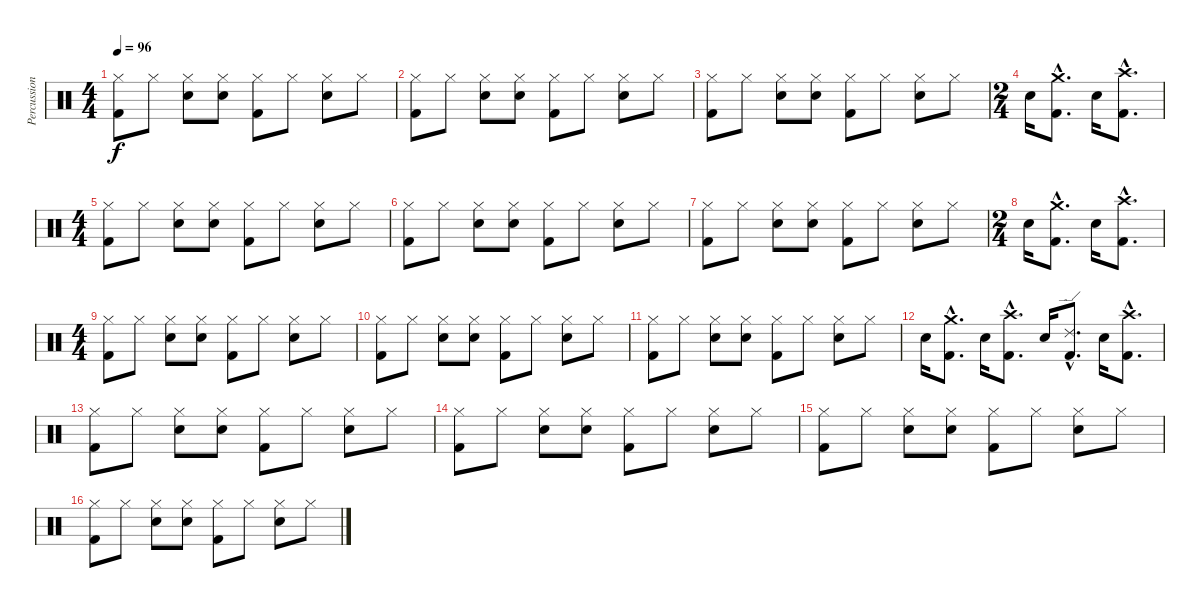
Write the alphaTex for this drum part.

\track ("Percussion" "Percussion") {instrument percussion}
\staff {score}
\articulation defaults
\ts (4 4)
\tempo 96
\clef neutral
\ks c
("Hi-Hat (closed)" "Kick (hit) 2").8{dy f} "Hi-Hat (closed)".8 ("Hi-Hat (closed)" "Snare (hit) 2").8 ("Hi-Hat (closed)" "Snare (hit) 2").8 ("Hi-Hat (closed)" "Kick (hit) 2").8 "Hi-Hat (closed)".8 ("Hi-Hat (closed)" "Snare (hit) 2").8 "Hi-Hat (closed)".8 |
("Hi-Hat (closed)" "Kick (hit) 2").8 "Hi-Hat (closed)".8 ("Hi-Hat (closed)" "Snare (hit) 2").8 ("Hi-Hat (closed)" "Snare (hit) 2").8 ("Hi-Hat (closed)" "Kick (hit) 2").8 "Hi-Hat (closed)".8 ("Hi-Hat (closed)" "Snare (hit) 2").8 "Hi-Hat (closed)".8 |
("Hi-Hat (closed)" "Kick (hit) 2").8 "Hi-Hat (closed)".8 ("Hi-Hat (closed)" "Snare (hit) 2").8 ("Hi-Hat (closed)" "Snare (hit) 2").8 ("Hi-Hat (closed)" "Kick (hit) 2").8 "Hi-Hat (closed)".8 ("Hi-Hat (closed)" "Snare (hit) 2").8 "Hi-Hat (closed)".8 |
\ts (2 4)
"Snare (hit) 2".16 ("Crash medium (hit)"{hac} "Kick (hit) 2"{hac}).8{d} "Snare (hit) 2".16 ("Crash high (hit)"{hac} "Kick (hit) 2"{hac}).8{d} |
\ts (4 4)
("Hi-Hat (closed)" "Kick (hit) 2").8 "Hi-Hat (closed)".8 ("Hi-Hat (closed)" "Snare (hit) 2").8 ("Hi-Hat (closed)" "Snare (hit) 2").8 ("Hi-Hat (closed)" "Kick (hit) 2").8 "Hi-Hat (closed)".8 ("Hi-Hat (closed)" "Snare (hit) 2").8 "Hi-Hat (closed)".8 |
("Hi-Hat (closed)" "Kick (hit) 2").8 "Hi-Hat (closed)".8 ("Hi-Hat (closed)" "Snare (hit) 2").8 ("Hi-Hat (closed)" "Snare (hit) 2").8 ("Hi-Hat (closed)" "Kick (hit) 2").8 "Hi-Hat (closed)".8 ("Hi-Hat (closed)" "Snare (hit) 2").8 "Hi-Hat (closed)".8 |
("Hi-Hat (closed)" "Kick (hit) 2").8 "Hi-Hat (closed)".8 ("Hi-Hat (closed)" "Snare (hit) 2").8 ("Hi-Hat (closed)" "Snare (hit) 2").8 ("Hi-Hat (closed)" "Kick (hit) 2").8 "Hi-Hat (closed)".8 ("Hi-Hat (closed)" "Snare (hit) 2").8 "Hi-Hat (closed)".8 |
\ts (2 4)
"Snare (hit) 2".16 ("Crash medium (hit)"{hac} "Kick (hit) 2"{hac}).8{d} "Snare (hit) 2".16 ("Crash high (hit)"{hac} "Kick (hit) 2"{hac}).8{d} |
\ts (4 4)
("Hi-Hat (closed)" "Kick (hit) 2").8 "Hi-Hat (closed)".8 ("Hi-Hat (closed)" "Snare (hit) 2").8 ("Hi-Hat (closed)" "Snare (hit) 2").8 ("Hi-Hat (closed)" "Kick (hit) 2").8 "Hi-Hat (closed)".8 ("Hi-Hat (closed)" "Snare (hit) 2").8 "Hi-Hat (closed)".8 |
("Hi-Hat (closed)" "Kick (hit) 2").8 "Hi-Hat (closed)".8 ("Hi-Hat (closed)" "Snare (hit) 2").8 ("Hi-Hat (closed)" "Snare (hit) 2").8 ("Hi-Hat (closed)" "Kick (hit) 2").8 "Hi-Hat (closed)".8 ("Hi-Hat (closed)" "Snare (hit) 2").8 "Hi-Hat (closed)".8 |
("Hi-Hat (closed)" "Kick (hit) 2").8 "Hi-Hat (closed)".8 ("Hi-Hat (closed)" "Snare (hit) 2").8 ("Hi-Hat (closed)" "Snare (hit) 2").8 ("Hi-Hat (closed)" "Kick (hit) 2").8 "Hi-Hat (closed)".8 ("Hi-Hat (closed)" "Snare (hit) 2").8 "Hi-Hat (closed)".8 |
"Snare (hit) 2".16 ("Crash medium (hit)"{hac} "Kick (hit) 2"{hac}).8{d} "Snare (hit) 2".16 ("Crash high (hit)"{hac} "Kick (hit) 2"{hac}).8{d} "Snare (hit) 2".16 ("Ride (edge) 2"{hac} "Kick (hit) 2"{hac}).8{d} "Snare (hit) 2".16 ("Crash high (hit)"{hac} "Kick (hit) 2"{hac}).8{d} |
("Hi-Hat (closed)" "Kick (hit) 2").8 "Hi-Hat (closed)".8 ("Hi-Hat (closed)" "Snare (hit) 2").8 ("Hi-Hat (closed)" "Snare (hit) 2").8 ("Hi-Hat (closed)" "Kick (hit) 2").8 "Hi-Hat (closed)".8 ("Hi-Hat (closed)" "Snare (hit) 2").8 "Hi-Hat (closed)".8 |
("Hi-Hat (closed)" "Kick (hit) 2").8 "Hi-Hat (closed)".8 ("Hi-Hat (closed)" "Snare (hit) 2").8 ("Hi-Hat (closed)" "Snare (hit) 2").8 ("Hi-Hat (closed)" "Kick (hit) 2").8 "Hi-Hat (closed)".8 ("Hi-Hat (closed)" "Snare (hit) 2").8 "Hi-Hat (closed)".8 |
("Hi-Hat (closed)" "Kick (hit) 2").8 "Hi-Hat (closed)".8 ("Hi-Hat (closed)" "Snare (hit) 2").8 ("Hi-Hat (closed)" "Snare (hit) 2").8 ("Hi-Hat (closed)" "Kick (hit) 2").8 "Hi-Hat (closed)".8 ("Hi-Hat (closed)" "Snare (hit) 2").8 "Hi-Hat (closed)".8 |
("Hi-Hat (closed)" "Kick (hit) 2").8 "Hi-Hat (closed)".8 ("Hi-Hat (closed)" "Snare (hit) 2").8 ("Hi-Hat (closed)" "Snare (hit) 2").8 ("Hi-Hat (closed)" "Kick (hit) 2").8 "Hi-Hat (closed)".8 ("Hi-Hat (closed)" "Snare (hit) 2").8 "Hi-Hat (closed)".8
